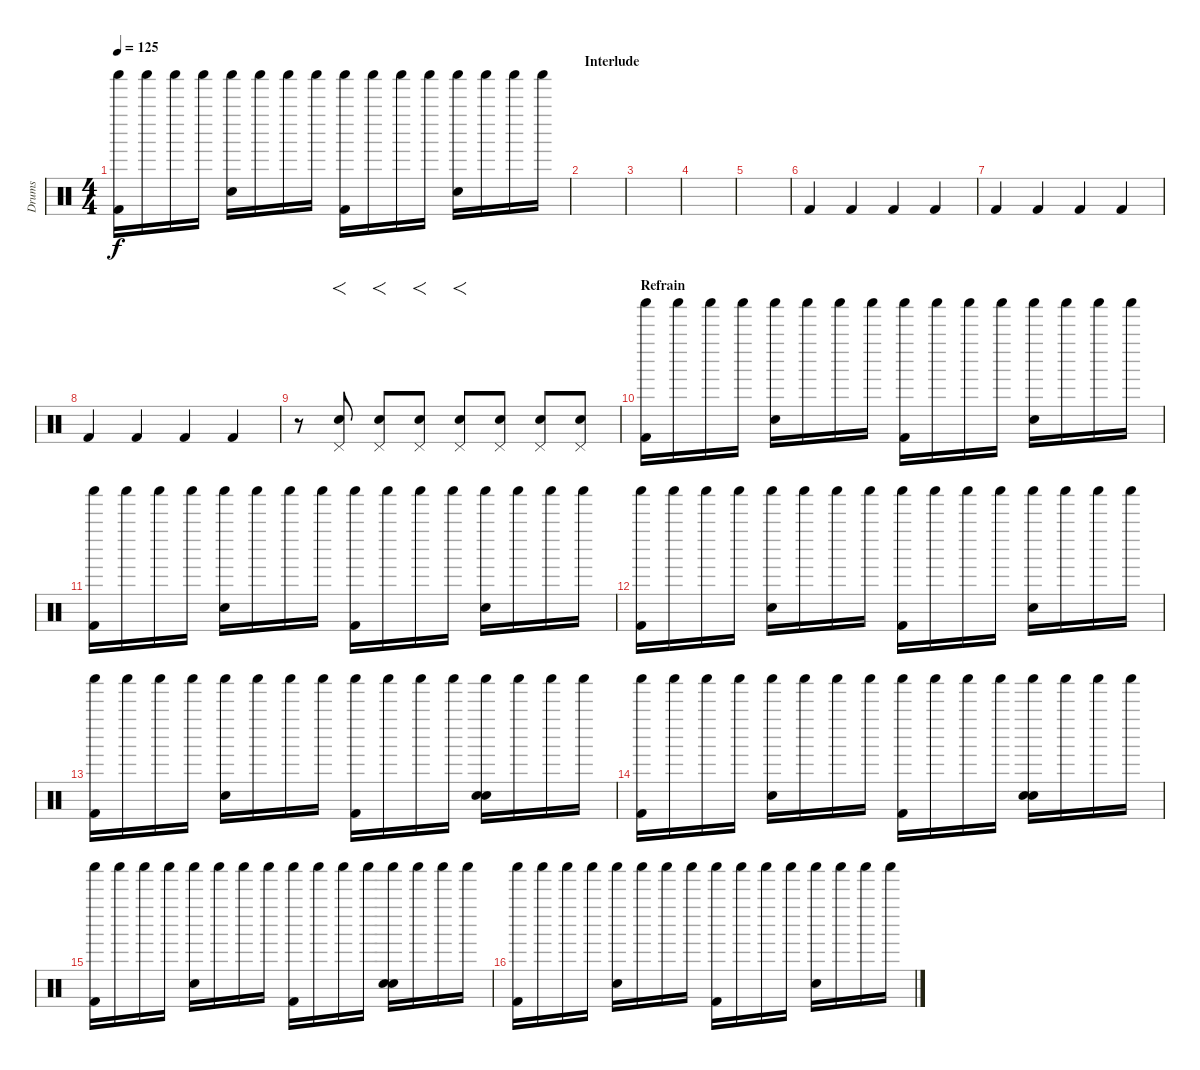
\track ("Drums" "Drums") {instrument percussion}
\staff {score}
\articulation defaults
\ts (4 4)
\tempo 125
\clef neutral
\ks c
("Shaker (hit)" "Kick (hit) 2").16{dy f} "Shaker (hit)".16 "Shaker (hit)".16 "Shaker (hit)".16 ("Shaker (hit)" "Electric Snare (hit)").16 "Shaker (hit)".16 "Shaker (hit)".16 "Shaker (hit)".16 ("Shaker (hit)" "Kick (hit) 2").16 "Shaker (hit)".16 "Shaker (hit)".16 "Shaker (hit)".16 ("Shaker (hit)" "Electric Snare (hit)").16 "Shaker (hit)".16 "Shaker (hit)".16 "Shaker (hit)".16 |
\section ("" "Interlude")
|
|
|
|
"Kick (hit) 2".4 "Kick (hit) 2".4 "Kick (hit) 2".4 "Kick (hit) 2".4 |
"Kick (hit) 2".4 "Kick (hit) 2".4 "Kick (hit) 2".4 "Kick (hit) 2".4 |
"Kick (hit) 2".4 "Kick (hit) 2".4 "Kick (hit) 2".4 "Kick (hit) 2".4 |
r.8 ("Pedal Hi-Hat (hit)" "Snare (hit) 2").8{f} ("Snare (hit) 2" "Pedal Hi-Hat (hit)").8{f} ("Snare (hit) 2" "Pedal Hi-Hat (hit)").8{f} ("Snare (hit) 2" "Pedal Hi-Hat (hit)").8{f} ("Snare (hit) 2" "Pedal Hi-Hat (hit)").8 ("Snare (hit) 2" "Pedal Hi-Hat (hit)").8 ("Snare (hit) 2" "Pedal Hi-Hat (hit)").8 |
\section ("" "Refrain")
("Shaker (hit)" "Kick (hit) 2").16 "Shaker (hit)".16 "Shaker (hit)".16 "Shaker (hit)".16 ("Shaker (hit)" "Snare (hit) 2").16 "Shaker (hit)".16 "Shaker (hit)".16 "Shaker (hit)".16 ("Shaker (hit)" "Kick (hit) 2").16 "Shaker (hit)".16 "Shaker (hit)".16 "Shaker (hit)".16 ("Shaker (hit)" "Snare (hit) 2").16 "Shaker (hit)".16 "Shaker (hit)".16 "Shaker (hit)".16 |
("Shaker (hit)" "Kick (hit) 2").16 "Shaker (hit)".16 "Shaker (hit)".16 "Shaker (hit)".16 ("Shaker (hit)" "Snare (hit) 2").16 "Shaker (hit)".16 "Shaker (hit)".16 "Shaker (hit)".16 ("Shaker (hit)" "Kick (hit) 2").16 "Shaker (hit)".16 "Shaker (hit)".16 "Shaker (hit)".16 ("Shaker (hit)" "Snare (hit) 2").16 "Shaker (hit)".16 "Shaker (hit)".16 "Shaker (hit)".16 |
("Shaker (hit)" "Kick (hit) 2").16 "Shaker (hit)".16 "Shaker (hit)".16 "Shaker (hit)".16 ("Shaker (hit)" "Snare (hit) 2").16 "Shaker (hit)".16 "Shaker (hit)".16 "Shaker (hit)".16 ("Shaker (hit)" "Kick (hit) 2").16 "Shaker (hit)".16 "Shaker (hit)".16 "Shaker (hit)".16 ("Shaker (hit)" "Snare (hit) 2").16 "Shaker (hit)".16 "Shaker (hit)".16 "Shaker (hit)".16 |
("Shaker (hit)" "Kick (hit) 2").16 "Shaker (hit)".16 "Shaker (hit)".16 "Shaker (hit)".16 ("Shaker (hit)" "Snare (hit) 2").16 "Shaker (hit)".16 "Shaker (hit)".16 "Shaker (hit)".16 ("Shaker (hit)" "Kick (hit) 2").16 "Shaker (hit)".16 "Shaker (hit)".16 "Shaker (hit)".16 ("Shaker (hit)" "Snare (hit) 2" "Snare (hit) 2").16 "Shaker (hit)".16 "Shaker (hit)".16 "Shaker (hit)".16 |
("Shaker (hit)" "Kick (hit) 2").16 "Shaker (hit)".16 "Shaker (hit)".16 "Shaker (hit)".16 ("Shaker (hit)" "Snare (hit) 2").16 "Shaker (hit)".16 "Shaker (hit)".16 "Shaker (hit)".16 ("Shaker (hit)" "Kick (hit) 2").16 "Shaker (hit)".16 "Shaker (hit)".16 "Shaker (hit)".16 ("Shaker (hit)" "Snare (hit) 2" "Snare (hit) 2").16 "Shaker (hit)".16 "Shaker (hit)".16 "Shaker (hit)".16 |
("Shaker (hit)" "Kick (hit) 2").16 "Shaker (hit)".16 "Shaker (hit)".16 "Shaker (hit)".16 ("Shaker (hit)" "Snare (hit) 2").16 "Shaker (hit)".16 "Shaker (hit)".16 "Shaker (hit)".16 ("Shaker (hit)" "Kick (hit) 2").16 "Shaker (hit)".16 "Shaker (hit)".16 "Shaker (hit)".16 ("Shaker (hit)" "Snare (hit) 2" "Snare (hit) 2").16 "Shaker (hit)".16 "Shaker (hit)".16 "Shaker (hit)".16 |
("Shaker (hit)" "Kick (hit) 2").16 "Shaker (hit)".16 "Shaker (hit)".16 "Shaker (hit)".16 ("Shaker (hit)" "Snare (hit) 2").16 "Shaker (hit)".16 "Shaker (hit)".16 "Shaker (hit)".16 ("Shaker (hit)" "Kick (hit) 2").16 "Shaker (hit)".16 "Shaker (hit)".16 "Shaker (hit)".16 ("Shaker (hit)" "Snare (hit) 2").16 "Shaker (hit)".16 "Shaker (hit)".16 "Shaker (hit)".16
